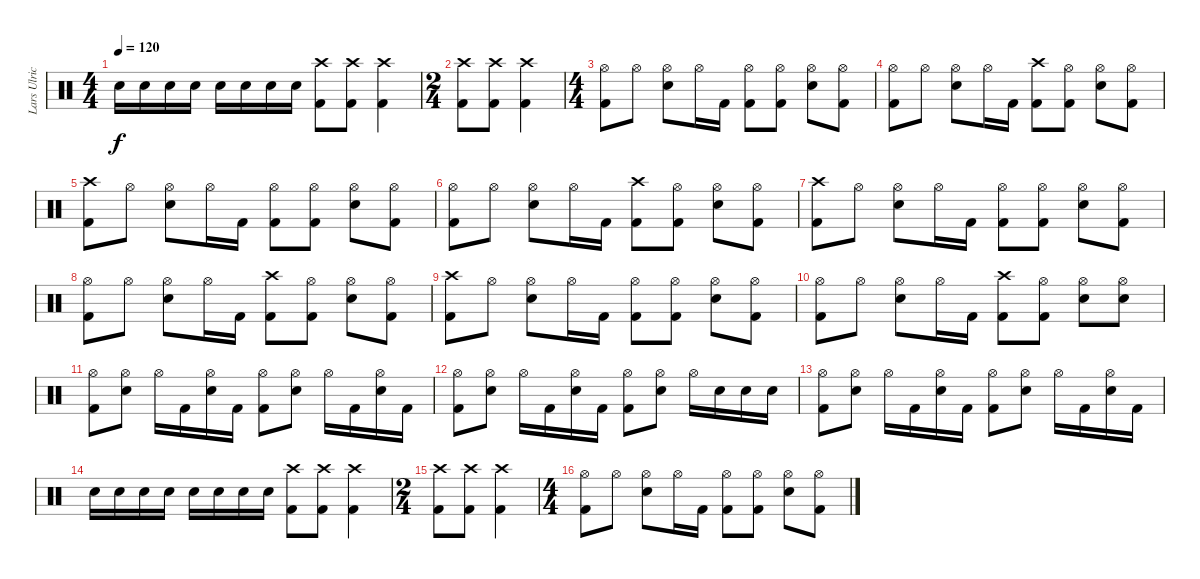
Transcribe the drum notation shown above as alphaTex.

\track ("Lars Ulrich" "Lars Ulric") {instrument percussion}
\staff {score}
\articulation defaults
\ts (4 4)
\tempo 120
\clef neutral
\ks c "Electric Snare (hit)".16{dy f} "Electric Snare (hit)".16 "Electric Snare (hit)".16 "Electric Snare (hit)".16 "Electric Snare (hit)".16 "Electric Snare (hit)".16 "Electric Snare (hit)".16 "Electric Snare (hit)".16
("Kick (hit) 2" "Crash high (hit)").8 ("Kick (hit) 2" "Crash high (hit)").8 ("Kick (hit) 2" "Crash high (hit)").4 |
\ts (2 4)
("Kick (hit) 2" "Crash high (hit)").8 ("Kick (hit) 2" "Crash high (hit)").8 ("Kick (hit) 2" "Crash high (hit)").4 |
\ts (4 4)
("Hi-Hat (open)" "Kick (hit) 2").8 "Hi-Hat (open)".8 ("Hi-Hat (open)" "Electric Snare (hit)").8 "Hi-Hat (open)".16 "Kick (hit) 2".16 ("Hi-Hat (open)" "Kick (hit) 2").8 ("Hi-Hat (open)" "Kick (hit) 2").8 ("Hi-Hat (open)" "Electric Snare (hit)").8 ("Hi-Hat (open)" "Kick (hit) 2").8 |
("Hi-Hat (open)" "Kick (hit) 2").8 "Hi-Hat (open)".8 ("Hi-Hat (open)" "Electric Snare (hit)").8 "Hi-Hat (open)".16 "Kick (hit) 2".16 ("Crash high (hit)" "Kick (hit) 2").8 ("Hi-Hat (open)" "Kick (hit) 2").8 ("Hi-Hat (open)" "Electric Snare (hit)").8 ("Hi-Hat (open)" "Kick (hit) 2").8 |
("Crash high (hit)" "Kick (hit) 2").8 "Hi-Hat (open)".8 ("Hi-Hat (open)" "Electric Snare (hit)").8 "Hi-Hat (open)".16 "Kick (hit) 2".16 ("Hi-Hat (open)" "Kick (hit) 2").8 ("Hi-Hat (open)" "Kick (hit) 2").8 ("Hi-Hat (open)" "Electric Snare (hit)").8 ("Hi-Hat (open)" "Kick (hit) 2").8 |
("Hi-Hat (open)" "Kick (hit) 2").8 "Hi-Hat (open)".8 ("Hi-Hat (open)" "Electric Snare (hit)").8 "Hi-Hat (open)".16 "Kick (hit) 2".16 ("Crash high (hit)" "Kick (hit) 2").8 ("Hi-Hat (open)" "Kick (hit) 2").8 ("Hi-Hat (open)" "Electric Snare (hit)").8 ("Hi-Hat (open)" "Kick (hit) 2").8 |
("Crash high (hit)" "Kick (hit) 2").8 "Hi-Hat (open)".8 ("Hi-Hat (open)" "Electric Snare (hit)").8 "Hi-Hat (open)".16 "Kick (hit) 2".16 ("Hi-Hat (open)" "Kick (hit) 2").8 ("Hi-Hat (open)" "Kick (hit) 2").8 ("Hi-Hat (open)" "Electric Snare (hit)").8 ("Hi-Hat (open)" "Kick (hit) 2").8 |
("Hi-Hat (open)" "Kick (hit) 2").8 "Hi-Hat (open)".8 ("Hi-Hat (open)" "Electric Snare (hit)").8 "Hi-Hat (open)".16 "Kick (hit) 2".16 ("Crash high (hit)" "Kick (hit) 2").8 ("Hi-Hat (open)" "Kick (hit) 2").8 ("Hi-Hat (open)" "Electric Snare (hit)").8 ("Hi-Hat (open)" "Kick (hit) 2").8 |
("Crash high (hit)" "Kick (hit) 2").8 "Hi-Hat (open)".8 ("Hi-Hat (open)" "Electric Snare (hit)").8 "Hi-Hat (open)".16 "Kick (hit) 2".16 ("Hi-Hat (open)" "Kick (hit) 2").8 ("Hi-Hat (open)" "Kick (hit) 2").8 ("Hi-Hat (open)" "Electric Snare (hit)").8 ("Hi-Hat (open)" "Kick (hit) 2").8 |
("Hi-Hat (open)" "Kick (hit) 2").8 "Hi-Hat (open)".8 ("Hi-Hat (open)" "Electric Snare (hit)").8 "Hi-Hat (open)".16 "Kick (hit) 2".16 ("Crash high (hit)" "Kick (hit) 2").8 ("Hi-Hat (open)" "Kick (hit) 2").8 ("Hi-Hat (open)" "Electric Snare (hit)").8 ("Hi-Hat (open)" "Electric Snare (hit)").8 |
("Hi-Hat (open)" "Kick (hit) 2").8 ("Hi-Hat (open)" "Electric Snare (hit)").8 "Hi-Hat (open)".16 "Kick (hit) 2".16 ("Hi-Hat (open)" "Electric Snare (hit)").16 "Kick (hit) 2".16 ("Hi-Hat (open)" "Kick (hit) 2").8 ("Hi-Hat (open)" "Electric Snare (hit)").8 "Hi-Hat (open)".16 "Kick (hit) 2".16 ("Hi-Hat (open)" "Electric Snare (hit)").16 "Kick (hit) 2".16 |
("Hi-Hat (open)" "Kick (hit) 2").8 ("Hi-Hat (open)" "Electric Snare (hit)").8 "Hi-Hat (open)".16 "Kick (hit) 2".16 ("Hi-Hat (open)" "Electric Snare (hit)").16 "Kick (hit) 2".16 ("Hi-Hat (open)" "Kick (hit) 2").8 ("Hi-Hat (open)" "Electric Snare (hit)").8 "Hi-Hat (open)".16 "Electric Snare (hit)".16 "Electric Snare (hit)".16 "Electric Snare (hit)".16 |
("Hi-Hat (open)" "Kick (hit) 2").8 ("Hi-Hat (open)" "Electric Snare (hit)").8 "Hi-Hat (open)".16 "Kick (hit) 2".16 ("Hi-Hat (open)" "Electric Snare (hit)").16 "Kick (hit) 2".16 ("Hi-Hat (open)" "Kick (hit) 2").8 ("Hi-Hat (open)" "Electric Snare (hit)").8 "Hi-Hat (open)".16 "Kick (hit) 2".16 ("Hi-Hat (open)" "Electric Snare (hit)").16 "Kick (hit) 2".16 |
"Electric Snare (hit)".16 "Electric Snare (hit)".16 "Electric Snare (hit)".16 "Electric Snare (hit)".16 "Electric Snare (hit)".16 "Electric Snare (hit)".16 "Electric Snare (hit)".16 "Electric Snare (hit)".16 ("Kick (hit) 2" "Crash high (hit)").8 ("Kick (hit) 2" "Crash high (hit)").8 ("Kick (hit) 2" "Crash high (hit)").4 |
\ts (2 4)
("Kick (hit) 2" "Crash high (hit)").8 ("Kick (hit) 2" "Crash high (hit)").8 ("Kick (hit) 2" "Crash high (hit)").4 |
\ts (4 4)
("Hi-Hat (open)" "Kick (hit) 2").8 "Hi-Hat (open)".8 ("Hi-Hat (open)" "Electric Snare (hit)").8 "Hi-Hat (open)".16 "Kick (hit) 2".16 ("Hi-Hat (open)" "Kick (hit) 2").8 ("Hi-Hat (open)" "Kick (hit) 2").8 ("Hi-Hat (open)" "Electric Snare (hit)").8 ("Hi-Hat (open)" "Kick (hit) 2").8
